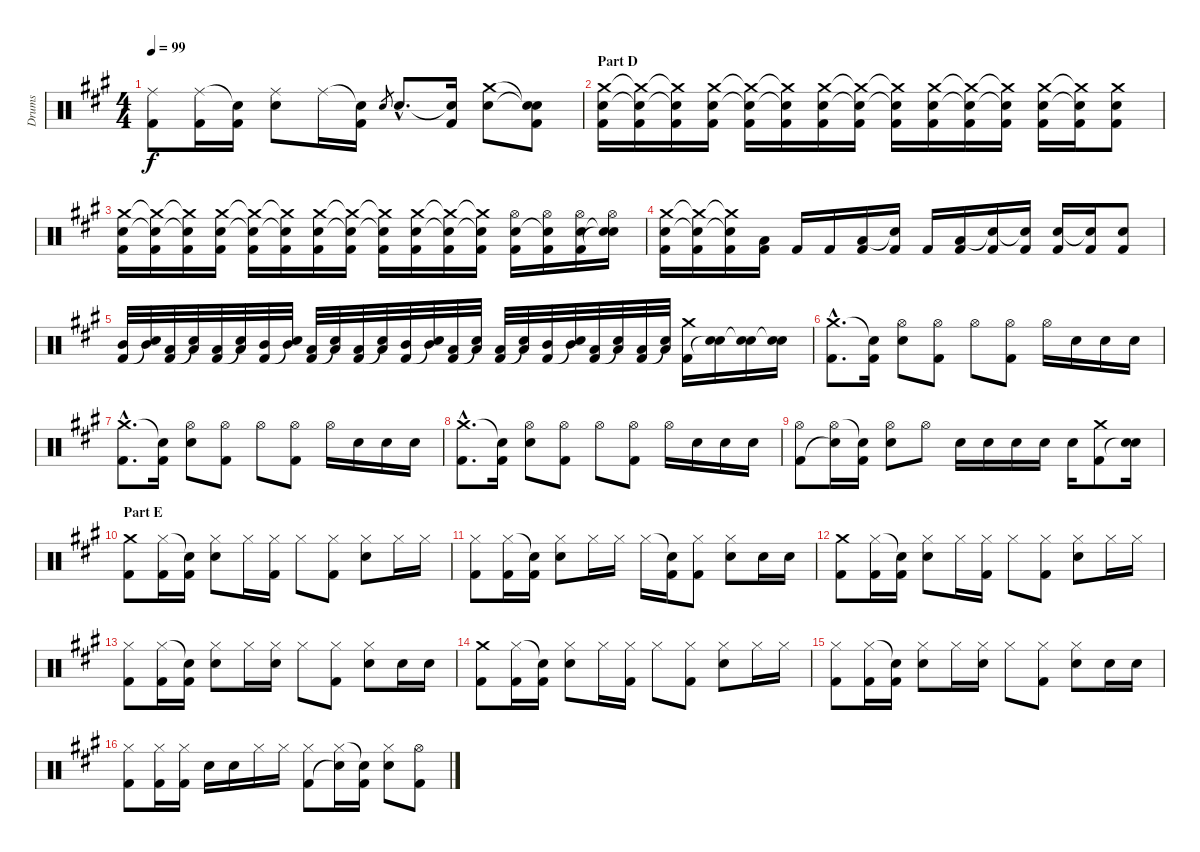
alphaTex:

\track ("Drums" "Drums") {instrument percussion}
\staff {score}
\articulation defaults
\ts (4 4)
\tempo 99
\clef neutral
\ks a
("Ride (middle)" "Kick (hit) 2").8{dy f} ("Ride (middle)" "Kick (hit) 2").16 ("Snare (hit)"{t} "Kick (hit) 2").16 ("Ride (middle)" "Electric Snare (hit)").8 "Ride (middle)".16 ("Snare (hit)"{t} "Kick (hit) 2").16 "Electric Snare (hit)".8{gr} "Electric Snare (hit)"{hac}.8{d} ("Snare (hit)"{t} "Kick (hit) 2").16 ("Crash medium (hit)" "Electric Snare (hit)").8 ("Snare (hit)"{t} "Snare (hit)"{t} "Kick (hit) 2").8 |
\section ("" "Part D")
("Crash medium (hit)" "Electric Snare (hit)" "Kick (hit) 2").16 ("Crash medium (hit)"{t} "Electric Snare (hit)"{t} "Kick (hit) 2").16 ("Crash medium (hit)"{t} "Electric Snare (hit)"{t} "Kick (hit) 2").16 ("Crash medium (hit)" "Electric Snare (hit)" "Kick (hit) 2").16 ("Crash medium (hit)"{t} "Electric Snare (hit)"{t} "Kick (hit) 2").16 ("Crash medium (hit)"{t} "Electric Snare (hit)"{t} "Kick (hit) 2").16 ("Crash medium (hit)" "Electric Snare (hit)" "Kick (hit) 2").16 ("Crash medium (hit)"{t} "Electric Snare (hit)"{t} "Kick (hit) 2").16 ("Crash medium (hit)"{t} "Electric Snare (hit)"{t} "Kick (hit) 2").16 ("Crash medium (hit)" "Electric Snare (hit)" "Kick (hit) 2").16 ("Crash medium (hit)"{t} "Electric Snare (hit)"{t} "Kick (hit) 2").16 ("Crash medium (hit)"{t} "Electric Snare (hit)"{t} "Kick (hit) 2").16 ("Crash medium (hit)" "Electric Snare (hit)" "Kick (hit) 2").16 ("Crash medium (hit)"{t} "Electric Snare (hit)"{t} "Kick (hit) 2").16 ("Crash medium (hit)" "Electric Snare (hit)" "Kick (hit) 2").8 |
("Crash medium (hit)" "Electric Snare (hit)" "Kick (hit) 2").16 ("Crash medium (hit)"{t} "Electric Snare (hit)"{t} "Kick (hit) 2").16 ("Crash medium (hit)"{t} "Electric Snare (hit)"{t} "Kick (hit) 2").16 ("Crash medium (hit)" "Electric Snare (hit)" "Kick (hit) 2").16 ("Crash medium (hit)"{t} "Electric Snare (hit)"{t} "Kick (hit) 2").16 ("Crash medium (hit)"{t} "Electric Snare (hit)"{t} "Kick (hit) 2").16 ("Crash medium (hit)" "Electric Snare (hit)" "Kick (hit) 2").16 ("Crash medium (hit)"{t} "Electric Snare (hit)"{t} "Kick (hit) 2").16 ("Crash medium (hit)"{t} "Electric Snare (hit)"{t} "Kick (hit) 2").16 ("Crash medium (hit)" "Electric Snare (hit)" "Kick (hit) 2").16 ("Crash medium (hit)"{t} "Electric Snare (hit)"{t} "Kick (hit) 2").16 ("Crash medium (hit)"{t} "Electric Snare (hit)"{t} "Kick (hit) 2").16 ("Hi-Hat (open)" "Electric Snare (hit)" "Kick (hit) 2").16 ("Hi-Hat (open)" "Electric Snare (hit)"{t} "Kick (hit) 2").16 ("Hi-Hat (open)" "Electric Snare (hit)" "Kick (hit) 2").16 ("Hi-Hat (open)" "Snare (hit)"{t} "Snare (hit)"{t}).16 |
("Crash medium (hit)" "Electric Snare (hit)" "Kick (hit) 2").16 ("Crash medium (hit)"{t} "Electric Snare (hit)"{t} "Kick (hit) 2").16 ("Crash medium (hit)"{t} "Electric Snare (hit)"{t} "Kick (hit) 2").16 ("Low Floor Tom (hit)" "Kick (hit) 2").16 "Kick (hit) 2".16 "Kick (hit) 2".16 ("Low Floor Tom (hit)" "Kick (hit) 2").16 ("Snare (hit)"{t} "Kick (hit) 2").16 "Kick (hit) 2".16 ("Low Floor Tom (hit)" "Kick (hit) 2").16 ("Snare (hit)"{t} "Kick (hit) 2").16 ("Snare (hit)"{t} "Kick (hit) 2").16 ("Electric Snare (hit)" "Kick (hit) 2").16 ("Snare (hit)"{t} "Kick (hit) 2").16 ("Electric Snare (hit)" "Kick (hit) 2").8 |
("Mid Tom (hit)" "Kick (hit) 2").32 ("Mid Tom (hit)" "Snare (hit)"{t}).32 ("Low Tom (hit)" "Kick (hit) 2").32 ("Low Tom (hit)" "Snare (hit)"{t}).32 ("Low Floor Tom (hit)" "Kick (hit) 2").32 ("Low Floor Tom (hit)" "Snare (hit)"{t}).32 ("Mid Tom (hit)" "Kick (hit) 2").32 ("Mid Tom (hit)" "Snare (hit)"{t}).32 ("Low Tom (hit)" "Kick (hit) 2").32 ("Low Tom (hit)" "Snare (hit)"{t}).32 ("Low Floor Tom (hit)" "Kick (hit) 2").32 ("Low Floor Tom (hit)" "Snare (hit)"{t}).32 ("Mid Tom (hit)" "Kick (hit) 2").32 ("Mid Tom (hit)" "Snare (hit)"{t}).32 ("Low Tom (hit)" "Kick (hit) 2").32 ("Low Tom (hit)" "Snare (hit)"{t}).32 ("Low Floor Tom (hit)" "Kick (hit) 2").32 ("Low Floor Tom (hit)" "Snare (hit)"{t}).32 ("Mid Tom (hit)" "Kick (hit) 2").32 ("Mid Tom (hit)" "Snare (hit)"{t}).32 ("Low Tom (hit)" "Kick (hit) 2").32 ("Low Tom (hit)" "Snare (hit)"{t}).32 ("Low Floor Tom (hit)" "Kick (hit) 2").32 ("Low Floor Tom (hit)" "Snare (hit)"{t}).32 ("Crash medium (hit)" "Kick (hit) 2").16 ("Electric Snare (hit)" "Snare (hit)"{t}).16 ("Electric Snare (hit)" "Snare (hit)"{t}).16 ("Electric Snare (hit)" "Snare (hit)"{t}).16 |
("Crash medium (hit)"{hac} "Kick (hit) 2"{hac}).8{d} ("Snare (hit)"{t} "Kick (hit) 2").16 ("Hi-Hat (open)" "Electric Snare (hit)").8 ("Hi-Hat (open)" "Kick (hit) 2").8 "Hi-Hat (open)".8 ("Hi-Hat (open)" "Kick (hit) 2").8 "Hi-Hat (open)".16 "Electric Snare (hit)".16 "Electric Snare (hit)".16 "Electric Snare (hit)".16 |
("Crash medium (hit)"{hac} "Kick (hit) 2"{hac}).8{d} ("Snare (hit)"{t} "Kick (hit) 2").16 ("Hi-Hat (open)" "Electric Snare (hit)").8 ("Hi-Hat (open)" "Kick (hit) 2").8 "Hi-Hat (open)".8 ("Hi-Hat (open)" "Kick (hit) 2").8 "Hi-Hat (open)".16 "Electric Snare (hit)".16 "Electric Snare (hit)".16 "Electric Snare (hit)".16 |
("Crash medium (hit)"{hac} "Kick (hit) 2"{hac}).8{d} ("Snare (hit)"{t} "Kick (hit) 2").16 ("Hi-Hat (open)" "Electric Snare (hit)").8 ("Hi-Hat (open)" "Kick (hit) 2").8 "Hi-Hat (open)".8 ("Hi-Hat (open)" "Kick (hit) 2").8 "Hi-Hat (open)".16 "Electric Snare (hit)".16 "Electric Snare (hit)".16 "Electric Snare (hit)".16 |
("Hi-Hat (open)" "Kick (hit) 2").8 ("Hi-Hat (open)" "Snare (hit)"{t}).16 ("Snare (hit)"{t} "Kick (hit) 2").16 ("Hi-Hat (open)" "Electric Snare (hit)").8 "Hi-Hat (open)".8 "Electric Snare (hit)".16 "Electric Snare (hit)".16 "Electric Snare (hit)".16 "Electric Snare (hit)".16 "Electric Snare (hit)".16 ("Crash medium (hit)" "Kick (hit) 2").8 ("Electric Snare (hit)" "Snare (hit)"{t}).16 |
\section ("" "Part E")
("Crash medium (hit)" "Kick (hit) 2").8 ("Hi-Hat (closed)" "Kick (hit) 2").16 ("Snare (hit)"{t} "Kick (hit) 2").16 ("Hi-Hat (closed)" "Electric Snare (hit)").8 "Hi-Hat (closed)".16 ("Hi-Hat (closed)" "Kick (hit) 2").16 "Hi-Hat (closed)".8 ("Hi-Hat (closed)" "Kick (hit) 2").8 ("Hi-Hat (closed)" "Electric Snare (hit)").8 "Hi-Hat (closed)".16 "Hi-Hat (closed)".16 |
("Hi-Hat (closed)" "Kick (hit) 2").8 ("Hi-Hat (closed)" "Kick (hit) 2").16 ("Snare (hit)"{t} "Kick (hit) 2").16 ("Hi-Hat (closed)" "Electric Snare (hit)").8 "Hi-Hat (closed)".16 "Hi-Hat (closed)".16 "Hi-Hat (closed)".16 ("Snare (hit)"{t} "Kick (hit) 2").16 ("Hi-Hat (closed)" "Kick (hit) 2").8 ("Hi-Hat (closed)" "Electric Snare (hit)").8 "Electric Snare (hit)".16 "Electric Snare (hit)".16 |
("Crash medium (hit)" "Kick (hit) 2").8 ("Hi-Hat (closed)" "Kick (hit) 2").16 ("Snare (hit)"{t} "Kick (hit) 2").16 ("Hi-Hat (closed)" "Electric Snare (hit)").8 "Hi-Hat (closed)".16 ("Hi-Hat (closed)" "Kick (hit) 2").16 "Hi-Hat (closed)".8 ("Hi-Hat (closed)" "Kick (hit) 2").8 ("Hi-Hat (closed)" "Electric Snare (hit)").8 "Hi-Hat (closed)".16 "Hi-Hat (closed)".16 |
("Hi-Hat (closed)" "Kick (hit) 2").8 ("Hi-Hat (closed)" "Kick (hit) 2").16 ("Snare (hit)"{t} "Kick (hit) 2").16 ("Hi-Hat (closed)" "Electric Snare (hit)").8 "Hi-Hat (closed)".16 ("Hi-Hat (closed)" "Electric Snare (hit)").16 "Hi-Hat (closed)".8 ("Hi-Hat (closed)" "Kick (hit) 2").8 ("Hi-Hat (closed)" "Electric Snare (hit)").8 "Electric Snare (hit)".16 "Electric Snare (hit)".16 |
("Crash medium (hit)" "Kick (hit) 2").8 ("Hi-Hat (closed)" "Kick (hit) 2").16 ("Snare (hit)"{t} "Kick (hit) 2").16 ("Hi-Hat (closed)" "Electric Snare (hit)").8 "Hi-Hat (closed)".16 ("Hi-Hat (closed)" "Kick (hit) 2").16 "Hi-Hat (closed)".8 ("Hi-Hat (closed)" "Kick (hit) 2").8 ("Hi-Hat (closed)" "Electric Snare (hit)").8 "Hi-Hat (closed)".16 "Hi-Hat (closed)".16 |
("Hi-Hat (closed)" "Kick (hit) 2").8 ("Hi-Hat (closed)" "Kick (hit) 2").16 ("Snare (hit)"{t} "Kick (hit) 2").16 ("Hi-Hat (closed)" "Electric Snare (hit)").8 "Hi-Hat (closed)".16 ("Hi-Hat (closed)" "Electric Snare (hit)").16 "Hi-Hat (closed)".8 ("Hi-Hat (closed)" "Kick (hit) 2").8 ("Hi-Hat (closed)" "Electric Snare (hit)").8 "Electric Snare (hit)".16 "Electric Snare (hit)".16 |
("Hi-Hat (closed)" "Kick (hit) 2").8 ("Hi-Hat (closed)" "Kick (hit) 2").16 ("Hi-Hat (closed)" "Kick (hit) 2").16 "Electric Snare (hit)".16 "Electric Snare (hit)".16 "Hi-Hat (closed)".16 "Hi-Hat (closed)".16 ("Hi-Hat (closed)" "Kick (hit) 2").8 ("Hi-Hat (closed)" "Snare (hit)"{t}).16 ("Snare (hit)"{t} "Kick (hit) 2").16 ("Hi-Hat (closed)" "Electric Snare (hit)").8 ("Hi-Hat (open)" "Kick (hit) 2").8
